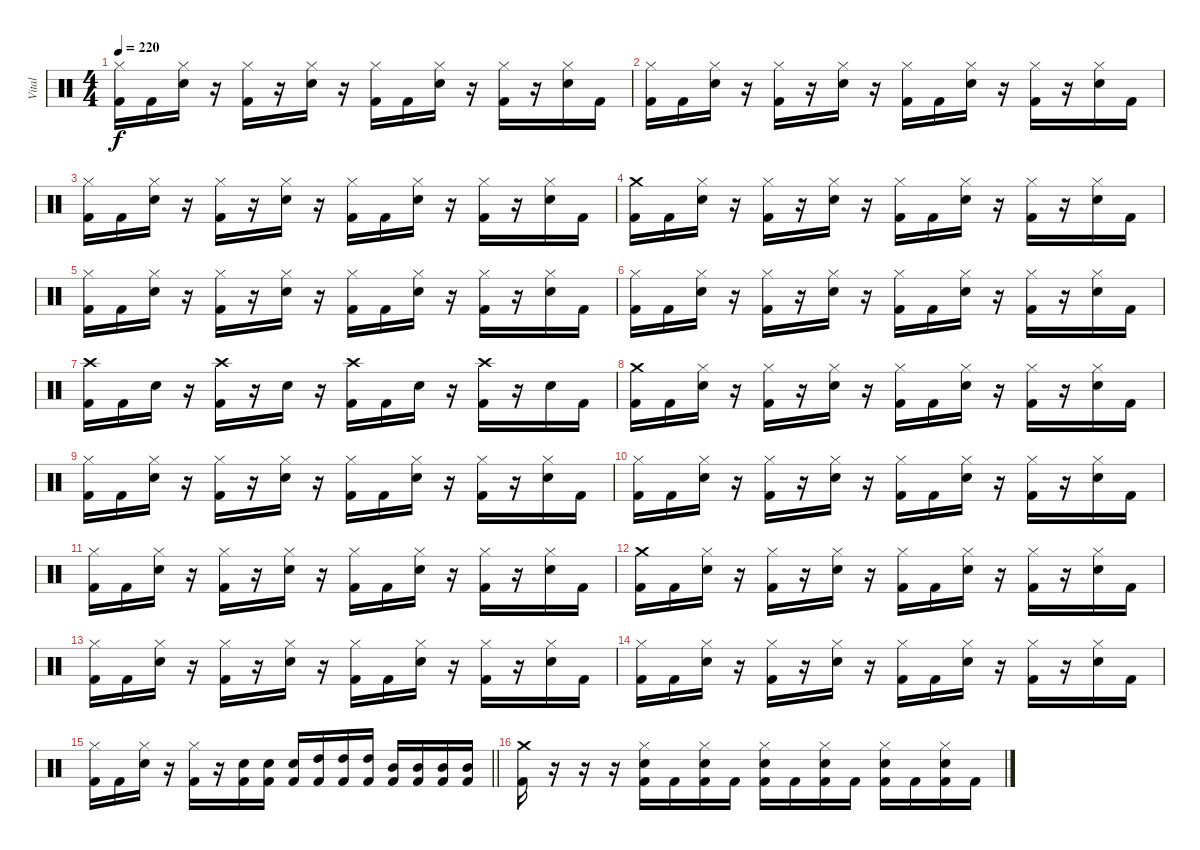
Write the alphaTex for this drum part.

\track ("Vital" "Vital") {instrument percussion}
\staff {score}
\articulation defaults
\ts (4 4)
\tempo 220
\clef neutral
\ks c
("Hi-Hat (closed)" "Kick (hit) 2").16{dy f} "Kick (hit) 2".16 ("Hi-Hat (closed)" "Snare (hit) 2").16 r.16 ("Hi-Hat (closed)" "Kick (hit) 2").16 r.16 ("Hi-Hat (closed)" "Snare (hit) 2").16 r.16 ("Hi-Hat (closed)" "Kick (hit) 2").16 "Kick (hit) 2".16 ("Hi-Hat (closed)" "Snare (hit) 2").16 r.16 ("Hi-Hat (closed)" "Kick (hit) 2").16 r.16 ("Hi-Hat (closed)" "Snare (hit) 2").16 "Kick (hit) 2".16 |
("Hi-Hat (closed)" "Kick (hit) 2").16 "Kick (hit) 2".16 ("Hi-Hat (closed)" "Snare (hit) 2").16 r.16 ("Hi-Hat (closed)" "Kick (hit) 2").16 r.16 ("Hi-Hat (closed)" "Snare (hit) 2").16 r.16 ("Hi-Hat (closed)" "Kick (hit) 2").16 "Kick (hit) 2".16 ("Hi-Hat (closed)" "Snare (hit) 2").16 r.16 ("Hi-Hat (closed)" "Kick (hit) 2").16 r.16 ("Hi-Hat (closed)" "Snare (hit) 2").16 "Kick (hit) 2".16 |
("Hi-Hat (closed)" "Kick (hit) 2").16 "Kick (hit) 2".16 ("Hi-Hat (closed)" "Snare (hit) 2").16 r.16 ("Hi-Hat (closed)" "Kick (hit) 2").16 r.16 ("Hi-Hat (closed)" "Snare (hit) 2").16 r.16 ("Hi-Hat (closed)" "Kick (hit) 2").16 "Kick (hit) 2".16 ("Hi-Hat (closed)" "Snare (hit) 2").16 r.16 ("Hi-Hat (closed)" "Kick (hit) 2").16 r.16 ("Hi-Hat (closed)" "Snare (hit) 2").16 "Kick (hit) 2".16 |
("Crash medium (hit)" "Kick (hit) 2").16 "Kick (hit) 2".16 ("Hi-Hat (closed)" "Snare (hit) 2").16 r.16 ("Hi-Hat (closed)" "Kick (hit) 2").16 r.16 ("Hi-Hat (closed)" "Snare (hit) 2").16 r.16 ("Hi-Hat (closed)" "Kick (hit) 2").16 "Kick (hit) 2".16 ("Hi-Hat (closed)" "Snare (hit) 2").16 r.16 ("Hi-Hat (closed)" "Kick (hit) 2").16 r.16 ("Hi-Hat (closed)" "Snare (hit) 2").16 "Kick (hit) 2".16 |
("Hi-Hat (closed)" "Kick (hit) 2").16 "Kick (hit) 2".16 ("Hi-Hat (closed)" "Snare (hit) 2").16 r.16 ("Hi-Hat (closed)" "Kick (hit) 2").16 r.16 ("Hi-Hat (closed)" "Snare (hit) 2").16 r.16 ("Hi-Hat (closed)" "Kick (hit) 2").16 "Kick (hit) 2".16 ("Hi-Hat (closed)" "Snare (hit) 2").16 r.16 ("Hi-Hat (closed)" "Kick (hit) 2").16 r.16 ("Hi-Hat (closed)" "Snare (hit) 2").16 "Kick (hit) 2".16 |
("Hi-Hat (closed)" "Kick (hit) 2").16 "Kick (hit) 2".16 ("Hi-Hat (closed)" "Snare (hit) 2").16 r.16 ("Hi-Hat (closed)" "Kick (hit) 2").16 r.16 ("Hi-Hat (closed)" "Snare (hit) 2").16 r.16 ("Hi-Hat (closed)" "Kick (hit) 2").16 "Kick (hit) 2".16 ("Hi-Hat (closed)" "Snare (hit) 2").16 r.16 ("Hi-Hat (closed)" "Kick (hit) 2").16 r.16 ("Hi-Hat (closed)" "Snare (hit) 2").16 "Kick (hit) 2".16 |
("Crash high (hit)" "Kick (hit) 2").16 "Kick (hit) 2".16 "Snare (hit) 2".16 r.16 ("Crash high (hit)" "Kick (hit) 2").16 r.16 "Snare (hit) 2".16 r.16 ("Crash high (hit)" "Kick (hit) 2").16 "Kick (hit) 2".16 "Snare (hit) 2".16 r.16 ("Crash high (hit)" "Kick (hit) 2").16 r.16 "Snare (hit) 2".16 "Kick (hit) 2".16 |
("Crash medium (hit)" "Kick (hit) 2").16 "Kick (hit) 2".16 ("Hi-Hat (closed)" "Snare (hit) 2").16 r.16 ("Hi-Hat (closed)" "Kick (hit) 2").16 r.16 ("Hi-Hat (closed)" "Snare (hit) 2").16 r.16 ("Hi-Hat (closed)" "Kick (hit) 2").16 "Kick (hit) 2".16 ("Hi-Hat (closed)" "Snare (hit) 2").16 r.16 ("Hi-Hat (closed)" "Kick (hit) 2").16 r.16 ("Hi-Hat (closed)" "Snare (hit) 2").16 "Kick (hit) 2".16 |
("Hi-Hat (closed)" "Kick (hit) 2").16 "Kick (hit) 2".16 ("Hi-Hat (closed)" "Snare (hit) 2").16 r.16 ("Hi-Hat (closed)" "Kick (hit) 2").16 r.16 ("Hi-Hat (closed)" "Snare (hit) 2").16 r.16 ("Hi-Hat (closed)" "Kick (hit) 2").16 "Kick (hit) 2".16 ("Hi-Hat (closed)" "Snare (hit) 2").16 r.16 ("Hi-Hat (closed)" "Kick (hit) 2").16 r.16 ("Hi-Hat (closed)" "Snare (hit) 2").16 "Kick (hit) 2".16 |
("Hi-Hat (closed)" "Kick (hit) 2").16 "Kick (hit) 2".16 ("Hi-Hat (closed)" "Snare (hit) 2").16 r.16 ("Hi-Hat (closed)" "Kick (hit) 2").16 r.16 ("Hi-Hat (closed)" "Snare (hit) 2").16 r.16 ("Hi-Hat (closed)" "Kick (hit) 2").16 "Kick (hit) 2".16 ("Hi-Hat (closed)" "Snare (hit) 2").16 r.16 ("Hi-Hat (closed)" "Kick (hit) 2").16 r.16 ("Hi-Hat (closed)" "Snare (hit) 2").16 "Kick (hit) 2".16 |
("Hi-Hat (closed)" "Kick (hit) 2").16 "Kick (hit) 2".16 ("Hi-Hat (closed)" "Snare (hit) 2").16 r.16 ("Hi-Hat (closed)" "Kick (hit) 2").16 r.16 ("Hi-Hat (closed)" "Snare (hit) 2").16 r.16 ("Hi-Hat (closed)" "Kick (hit) 2").16 "Kick (hit) 2".16 ("Hi-Hat (closed)" "Snare (hit) 2").16 r.16 ("Hi-Hat (closed)" "Kick (hit) 2").16 r.16 ("Hi-Hat (closed)" "Snare (hit) 2").16 "Kick (hit) 2".16 |
("Crash medium (hit)" "Kick (hit) 2").16 "Kick (hit) 2".16 ("Hi-Hat (closed)" "Snare (hit) 2").16 r.16 ("Hi-Hat (closed)" "Kick (hit) 2").16 r.16 ("Hi-Hat (closed)" "Snare (hit) 2").16 r.16 ("Hi-Hat (closed)" "Kick (hit) 2").16 "Kick (hit) 2".16 ("Hi-Hat (closed)" "Snare (hit) 2").16 r.16 ("Hi-Hat (closed)" "Kick (hit) 2").16 r.16 ("Hi-Hat (closed)" "Snare (hit) 2").16 "Kick (hit) 2".16 |
("Hi-Hat (closed)" "Kick (hit) 2").16 "Kick (hit) 2".16 ("Hi-Hat (closed)" "Snare (hit) 2").16 r.16 ("Hi-Hat (closed)" "Kick (hit) 2").16 r.16 ("Hi-Hat (closed)" "Snare (hit) 2").16 r.16 ("Hi-Hat (closed)" "Kick (hit) 2").16 "Kick (hit) 2".16 ("Hi-Hat (closed)" "Snare (hit) 2").16 r.16 ("Hi-Hat (closed)" "Kick (hit) 2").16 r.16 ("Hi-Hat (closed)" "Snare (hit) 2").16 "Kick (hit) 2".16 |
("Hi-Hat (closed)" "Kick (hit) 2").16 "Kick (hit) 2".16 ("Hi-Hat (closed)" "Snare (hit) 2").16 r.16 ("Hi-Hat (closed)" "Kick (hit) 2").16 r.16 ("Hi-Hat (closed)" "Snare (hit) 2").16 r.16 ("Hi-Hat (closed)" "Kick (hit) 2").16 "Kick (hit) 2".16 ("Hi-Hat (closed)" "Snare (hit) 2").16 r.16 ("Hi-Hat (closed)" "Kick (hit) 2").16 r.16 ("Hi-Hat (closed)" "Snare (hit) 2").16 "Kick (hit) 2".16 |
\barLineRight lightlight
("Hi-Hat (closed)" "Kick (hit) 2").16 "Kick (hit) 2".16 ("Hi-Hat (closed)" "Snare (hit) 2").16 r.16 ("Hi-Hat (closed)" "Kick (hit) 2").16 r.16 ("Snare (hit) 2" "Kick (hit) 2").16 ("Snare (hit) 2" "Kick (hit) 2").16 ("Snare (hit) 2" "Kick (hit) 2").16 ("High Tom (hit)" "Kick (hit) 2").16 ("High Tom (hit)" "Kick (hit) 2").16 ("High Tom (hit)" "Kick (hit) 2").16 ("Mid Tom (hit)" "Kick (hit) 2").16 ("Mid Tom (hit)" "Kick (hit) 2").16 ("Mid Tom (hit)" "Kick (hit) 2").16 ("Mid Tom (hit)" "Kick (hit) 2").16 |
("Crash medium (hit)" "Kick (hit) 2").16 r.16 r.16 r.16 ("Hi-Hat (closed)" "Snare (hit) 2" "Kick (hit) 2").16 "Kick (hit) 2".16 ("Hi-Hat (closed)" "Snare (hit) 2" "Kick (hit) 2").16 "Kick (hit) 2".16 ("Hi-Hat (closed)" "Snare (hit) 2" "Kick (hit) 2").16 "Kick (hit) 2".16 ("Hi-Hat (closed)" "Snare (hit) 2" "Kick (hit) 2").16 "Kick (hit) 2".16 ("Hi-Hat (closed)" "Snare (hit) 2" "Kick (hit) 2").16 "Kick (hit) 2".16 ("Hi-Hat (closed)" "Snare (hit) 2" "Kick (hit) 2").16 "Kick (hit) 2".16
